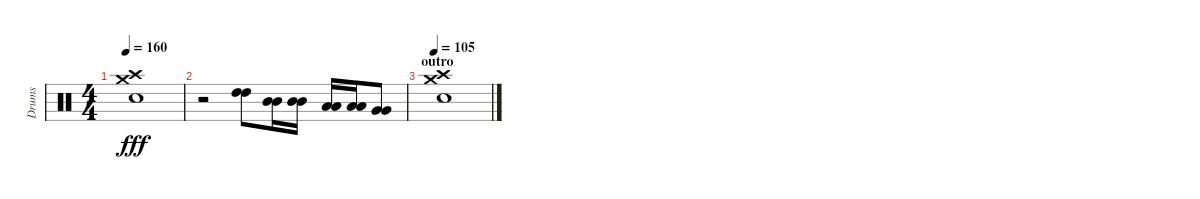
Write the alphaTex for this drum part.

\track ("Drums" "Drums") {instrument percussion}
\staff {score}
\articulation defaults
\ts (4 4)
\tempo 160
\clef neutral
\ks c
("Crash high (hit)" "Crash medium (hit)" "Electric Snare (hit)").1{dy fff} |
r.2 ("High Tom (hit)" "High Tom (hit)").8 ("Mid Tom (hit)" "Mid Tom (hit)").16 ("Mid Tom (hit)" "Mid Tom (hit)").16 ("Low Tom (hit)" "Low Tom (hit)").16 ("Low Tom (hit)" "Low Tom (hit)").16 ("Very Low Tom (hit)" "Very Low Tom (hit)").8 |
\section ("" "outro")
\tempo 105
("Crash high (hit)" "Crash medium (hit)" "Electric Snare (hit)").1
